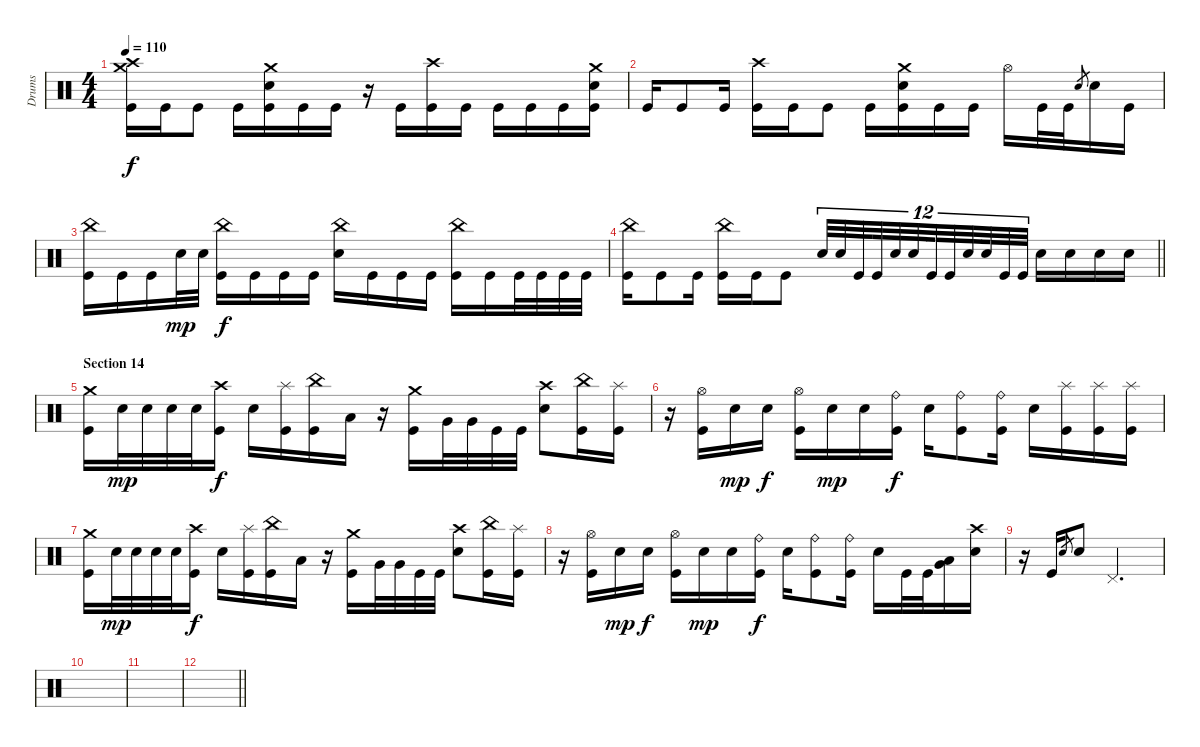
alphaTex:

\track ("Drums" "Drums") {instrument percussion}
\staff {score}
\articulation defaults
\ts (4 4)
\tempo 110
\clef neutral
\ks c
("Crash high (hit)" "Crash medium (hit)" "Kick (hit)").16{dy f} "Kick (hit)".16 "Kick (hit)".8 "Kick (hit)".16 ("Crash medium (hit)" "Electric Snare (hit)" "Kick (hit)").16 "Kick (hit)".16 "Kick (hit)".16 r.16 "Kick (hit)".16 ("Crash high (hit)" "Kick (hit)").16 "Kick (hit)".16 "Kick (hit)".16 "Kick (hit)".16 "Kick (hit)".16 ("Crash medium (hit)" "Electric Snare (hit)" "Kick (hit)").16 |
"Kick (hit)".16 "Kick (hit)".8 "Kick (hit)".16 ("Crash high (hit)" "Kick (hit)").16 "Kick (hit)".16 "Kick (hit)".8 "Kick (hit)".16 ("Crash medium (hit)" "Electric Snare (hit)" "Kick (hit)").16 "Kick (hit)".16 "Kick (hit)".16 "Hi-Hat (open)".16 "Kick (hit)".32 "Kick (hit)".32 "Electric Snare (hit)".8{gr} "Electric Snare (hit)".16 "Kick (hit)".16 |
("China (hit)" "Kick (hit)").16 "Kick (hit)".16 "Kick (hit)".16 "Electric Snare (hit)".32{dy mp} "Electric Snare (hit)".32 ("China (hit)" "Kick (hit)").16{dy f} "Kick (hit)".16 "Kick (hit)".16 "Kick (hit)".16 ("China (hit)" "Electric Snare (hit)").16 "Kick (hit)".16 "Kick (hit)".16 "Kick (hit)".16 ("China (hit)" "Kick (hit)").16 "Kick (hit)".16 "Kick (hit)".32 "Kick (hit)".32 "Kick (hit)".32 "Kick (hit)".32 |
\barLineRight lightlight
("China (hit)" "Kick (hit)").16 "Kick (hit)".8 "Kick (hit)".16 ("China (hit)" "Kick (hit)").16 "Kick (hit)".16 "Kick (hit)".8 "Electric Snare (hit)".32{tu (12 8)} "Electric Snare (hit)".32{tu (12 8)} "Kick (hit)".32{tu (12 8) beam splitsecondary} "Kick (hit)".32{tu (12 8)} "Electric Snare (hit)".32{tu (12 8)} "Electric Snare (hit)".32{tu (12 8) beam splitsecondary} "Kick (hit)".32{tu (12 8)} "Kick (hit)".32{tu (12 8)} "Electric Snare (hit)".32{tu (12 8) beam splitsecondary} "Electric Snare (hit)".32{tu (12 8)} "Kick (hit)".32{tu (12 8)} "Kick (hit)".32{tu (12 8)} "Electric Snare (hit)".16 "Electric Snare (hit)".16 "Electric Snare (hit)".16 "Electric Snare (hit)".16 |
\section ("" "Section 14")
("Crash medium (hit)" "Kick (hit)").16 "Electric Snare (hit)".32{dy mp} "Electric Snare (hit)".32 "Electric Snare (hit)".32 "Electric Snare (hit)".32 ("Crash high (hit)" "Kick (hit)").16{dy f} "Electric Snare (hit)".16 ("Splash (hit)" "Kick (hit)").16 ("China (hit)" "Kick (hit)").16 "Low Tom (hit)".16 r.16 ("Crash medium (hit)" "Kick (hit)").16 "Very Low Tom (hit)".32 "Very Low Tom (hit)".32 "Kick (hit)".32 "Kick (hit)".32 ("Crash high (hit)" "Electric Snare (hit)").8 ("China (hit)" "Kick (hit)").16 ("Splash (hit)" "Kick (hit)").16 |
r.16 ("Hi-Hat (open)" "Kick (hit)").16 "Electric Snare (hit)".16{dy mp} "Electric Snare (hit)".16{dy f} ("Hi-Hat (open)" "Kick (hit)").16 "Electric Snare (hit)".16{dy mp} "Electric Snare (hit)".16 ("Ride (bell)" "Kick (hit)").16{dy f} "Electric Snare (hit)".16 ("Ride (bell)" "Kick (hit)").8 ("Ride (bell)" "Kick (hit)").16 "Electric Snare (hit)".16 ("Splash (hit)" "Kick (hit)").16 ("Splash (hit)" "Kick (hit)").16 ("Splash (hit)" "Kick (hit)").16 |
("Crash medium (hit)" "Kick (hit)").16 "Electric Snare (hit)".32{dy mp} "Electric Snare (hit)".32 "Electric Snare (hit)".32 "Electric Snare (hit)".32 ("Crash high (hit)" "Kick (hit)").16{dy f} "Electric Snare (hit)".16 ("Splash (hit)" "Kick (hit)").16 ("China (hit)" "Kick (hit)").16 "Low Tom (hit)".16 r.16 ("Crash medium (hit)" "Kick (hit)").16 "Very Low Tom (hit)".32 "Very Low Tom (hit)".32 "Kick (hit)".32 "Kick (hit)".32 ("Crash high (hit)" "Electric Snare (hit)").8 ("China (hit)" "Kick (hit)").16 ("Splash (hit)" "Kick (hit)").16 |
r.16 ("Hi-Hat (open)" "Kick (hit)").16 "Electric Snare (hit)".16{dy mp} "Electric Snare (hit)".16{dy f} ("Hi-Hat (open)" "Kick (hit)").16 "Electric Snare (hit)".16{dy mp} "Electric Snare (hit)".16 ("Ride (bell)" "Kick (hit)").16{dy f} "Electric Snare (hit)".16 ("Ride (bell)" "Kick (hit)").8 ("Ride (bell)" "Kick (hit)").16 "Electric Snare (hit)".16 "Kick (hit)".32 "Kick (hit)".32 ("Low Tom (hit)" "Very Low Tom (hit)").16 ("Crash high (hit)" "Electric Snare (hit)").16 |
r.16 "Kick (hit)".16 "Electric Snare (hit)".8{gr} "Electric Snare (hit)".8 "Pedal Hi-Hat (hit)".2{d} |
|
|
\barLineRight lightlight
